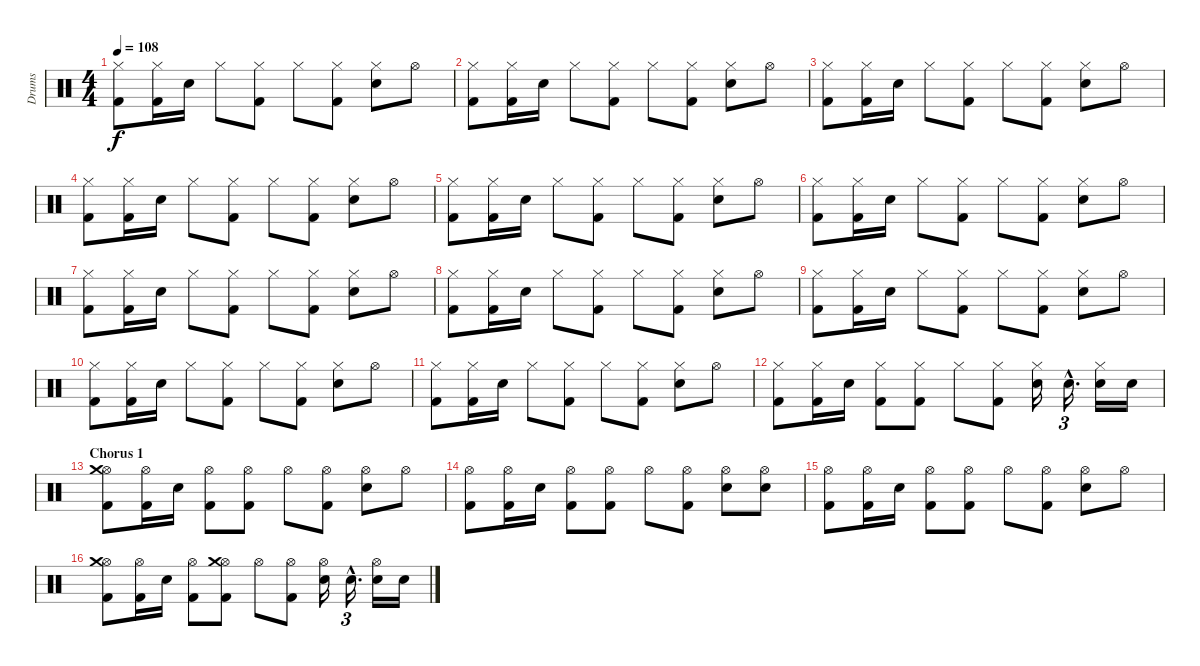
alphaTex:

\track ("Drums" "Drums") {instrument percussion}
\staff {score}
\articulation defaults
\ts (4 4)
\tempo 108
\clef neutral
\ks c
("Hi-Hat (closed)" "Kick (hit) 2").8{dy f} ("Hi-Hat (closed)" "Kick (hit) 2").16 "Electric Snare (hit)".16 "Hi-Hat (closed)".8 ("Hi-Hat (closed)" "Kick (hit) 2").8 "Hi-Hat (closed)".8 ("Hi-Hat (closed)" "Kick (hit) 2").8 ("Hi-Hat (closed)" "Electric Snare (hit)").8 "Hi-Hat (open)".8 |
("Hi-Hat (closed)" "Kick (hit) 2").8 ("Hi-Hat (closed)" "Kick (hit) 2").16 "Electric Snare (hit)".16 "Hi-Hat (closed)".8 ("Hi-Hat (closed)" "Kick (hit) 2").8 "Hi-Hat (closed)".8 ("Hi-Hat (closed)" "Kick (hit) 2").8 ("Hi-Hat (closed)" "Electric Snare (hit)").8 "Hi-Hat (open)".8 |
("Hi-Hat (closed)" "Kick (hit) 2").8 ("Hi-Hat (closed)" "Kick (hit) 2").16 "Electric Snare (hit)".16 "Hi-Hat (closed)".8 ("Hi-Hat (closed)" "Kick (hit) 2").8 "Hi-Hat (closed)".8 ("Hi-Hat (closed)" "Kick (hit) 2").8 ("Hi-Hat (closed)" "Electric Snare (hit)").8 "Hi-Hat (open)".8 |
("Hi-Hat (closed)" "Kick (hit) 2").8 ("Hi-Hat (closed)" "Kick (hit) 2").16 "Electric Snare (hit)".16 "Hi-Hat (closed)".8 ("Hi-Hat (closed)" "Kick (hit) 2").8 "Hi-Hat (closed)".8 ("Hi-Hat (closed)" "Kick (hit) 2").8 ("Hi-Hat (closed)" "Electric Snare (hit)").8 "Hi-Hat (open)".8 |
("Hi-Hat (closed)" "Kick (hit) 2").8 ("Hi-Hat (closed)" "Kick (hit) 2").16 "Electric Snare (hit)".16 "Hi-Hat (closed)".8 ("Hi-Hat (closed)" "Kick (hit) 2").8 "Hi-Hat (closed)".8 ("Hi-Hat (closed)" "Kick (hit) 2").8 ("Hi-Hat (closed)" "Electric Snare (hit)").8 "Hi-Hat (open)".8 |
("Hi-Hat (closed)" "Kick (hit) 2").8 ("Hi-Hat (closed)" "Kick (hit) 2").16 "Electric Snare (hit)".16 "Hi-Hat (closed)".8 ("Hi-Hat (closed)" "Kick (hit) 2").8 "Hi-Hat (closed)".8 ("Hi-Hat (closed)" "Kick (hit) 2").8 ("Hi-Hat (closed)" "Electric Snare (hit)").8 "Hi-Hat (open)".8 |
("Hi-Hat (closed)" "Kick (hit) 2").8 ("Hi-Hat (closed)" "Kick (hit) 2").16 "Electric Snare (hit)".16 "Hi-Hat (closed)".8 ("Hi-Hat (closed)" "Kick (hit) 2").8 "Hi-Hat (closed)".8 ("Hi-Hat (closed)" "Kick (hit) 2").8 ("Hi-Hat (closed)" "Electric Snare (hit)").8 "Hi-Hat (open)".8 |
("Hi-Hat (closed)" "Kick (hit) 2").8 ("Hi-Hat (closed)" "Kick (hit) 2").16 "Electric Snare (hit)".16 "Hi-Hat (closed)".8 ("Hi-Hat (closed)" "Kick (hit) 2").8 "Hi-Hat (closed)".8 ("Hi-Hat (closed)" "Kick (hit) 2").8 ("Hi-Hat (closed)" "Electric Snare (hit)").8 "Hi-Hat (open)".8 |
("Hi-Hat (closed)" "Kick (hit) 2").8 ("Hi-Hat (closed)" "Kick (hit) 2").16 "Electric Snare (hit)".16 "Hi-Hat (closed)".8 ("Hi-Hat (closed)" "Kick (hit) 2").8 "Hi-Hat (closed)".8 ("Hi-Hat (closed)" "Kick (hit) 2").8 ("Hi-Hat (closed)" "Electric Snare (hit)").8 "Hi-Hat (open)".8 |
("Hi-Hat (closed)" "Kick (hit) 2").8 ("Hi-Hat (closed)" "Kick (hit) 2").16 "Electric Snare (hit)".16 "Hi-Hat (closed)".8 ("Hi-Hat (closed)" "Kick (hit) 2").8 "Hi-Hat (closed)".8 ("Hi-Hat (closed)" "Kick (hit) 2").8 ("Hi-Hat (closed)" "Electric Snare (hit)").8 "Hi-Hat (open)".8 |
("Hi-Hat (closed)" "Kick (hit) 2").8 ("Hi-Hat (closed)" "Kick (hit) 2").16 "Electric Snare (hit)".16 "Hi-Hat (closed)".8 ("Hi-Hat (closed)" "Kick (hit) 2").8 "Hi-Hat (closed)".8 ("Hi-Hat (closed)" "Kick (hit) 2").8 ("Hi-Hat (closed)" "Electric Snare (hit)").8 "Hi-Hat (open)".8 |
("Hi-Hat (closed)" "Kick (hit) 2").8 ("Hi-Hat (closed)" "Kick (hit) 2").16 "Electric Snare (hit)".16 ("Hi-Hat (closed)" "Kick (hit) 2").8 ("Hi-Hat (closed)" "Kick (hit) 2").8 "Hi-Hat (closed)".8 ("Hi-Hat (closed)" "Kick (hit) 2").8 ("Hi-Hat (closed)" "Electric Snare (hit)").16 "Electric Snare (hit)"{hac}.16{d tu (3 2)} ("Hi-Hat (closed)" "Electric Snare (hit)").16 "Electric Snare (hit)".16 |
\section ("" "Chorus 1")
("Hi-Hat (open)" "Kick (hit) 2" "Crash medium (hit)").8 ("Hi-Hat (open)" "Kick (hit) 2").16 "Electric Snare (hit)".16 ("Hi-Hat (open)" "Kick (hit) 2").8 ("Hi-Hat (open)" "Kick (hit) 2").8 "Hi-Hat (open)".8 ("Hi-Hat (open)" "Kick (hit) 2").8 ("Hi-Hat (open)" "Electric Snare (hit)").8 "Hi-Hat (open)".8 |
("Hi-Hat (open)" "Kick (hit) 2").8 ("Hi-Hat (open)" "Kick (hit) 2").16 "Electric Snare (hit)".16 ("Hi-Hat (open)" "Kick (hit) 2").8 ("Hi-Hat (open)" "Kick (hit) 2").8 "Hi-Hat (open)".8 ("Hi-Hat (open)" "Kick (hit) 2").8 ("Hi-Hat (open)" "Electric Snare (hit)").8 ("Hi-Hat (open)" "Electric Snare (hit)").8 |
("Hi-Hat (open)" "Kick (hit) 2").8 ("Hi-Hat (open)" "Kick (hit) 2").16 "Electric Snare (hit)".16 ("Hi-Hat (open)" "Kick (hit) 2").8 ("Hi-Hat (open)" "Kick (hit) 2").8 "Hi-Hat (open)".8 ("Hi-Hat (open)" "Kick (hit) 2").8 ("Hi-Hat (open)" "Electric Snare (hit)").8 "Hi-Hat (open)".8 |
("Hi-Hat (open)" "Kick (hit) 2" "Crash medium (hit)").8 ("Hi-Hat (open)" "Kick (hit) 2").16 "Electric Snare (hit)".16 ("Hi-Hat (open)" "Kick (hit) 2").8 ("Hi-Hat (open)" "Kick (hit) 2" "Crash medium (hit)").8 "Hi-Hat (open)".8 ("Hi-Hat (open)" "Kick (hit) 2").8 ("Hi-Hat (open)" "Electric Snare (hit)").16 "Electric Snare (hit)"{hac}.16{d tu (3 2)} ("Hi-Hat (open)" "Electric Snare (hit)").16 "Electric Snare (hit)".16
